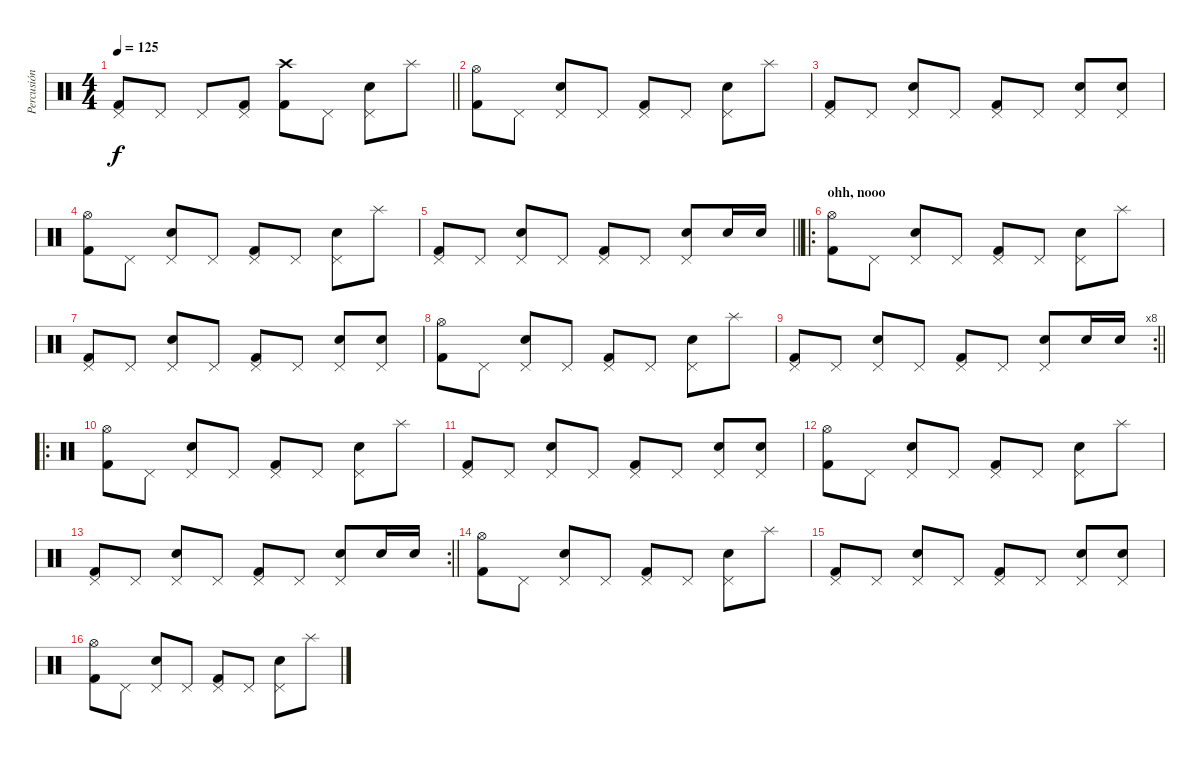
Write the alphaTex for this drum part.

\track ("Percusión" "Percusión") {instrument percussion}
\staff {score}
\articulation defaults
\ts (4 4)
\tempo 125
\clef neutral
\barLineRight lightlight
\ks c
("Pedal Hi-Hat (hit)" "Kick (hit) 2").8{dy f} "Pedal Hi-Hat (hit)".8 "Pedal Hi-Hat (hit)".8 ("Pedal Hi-Hat (hit)" "Kick (hit) 2").8 ("Crash high (hit)" "Kick (hit) 2").8 "Pedal Hi-Hat (hit)".8 ("Pedal Hi-Hat (hit)" "Snare (hit) 2").8 "Splash (hit)".8 |
("Hi-Hat (open)" "Kick (hit) 2").8 "Pedal Hi-Hat (hit)".8 ("Pedal Hi-Hat (hit)" "Snare (hit) 2").8 "Pedal Hi-Hat (hit)".8 ("Pedal Hi-Hat (hit)" "Kick (hit) 2").8 "Pedal Hi-Hat (hit)".8 ("Pedal Hi-Hat (hit)" "Snare (hit) 2").8 "Splash (hit)".8 |
("Pedal Hi-Hat (hit)" "Kick (hit) 2").8 "Pedal Hi-Hat (hit)".8 ("Pedal Hi-Hat (hit)" "Snare (hit) 2").8 "Pedal Hi-Hat (hit)".8 ("Pedal Hi-Hat (hit)" "Kick (hit) 2").8 "Pedal Hi-Hat (hit)".8 ("Pedal Hi-Hat (hit)" "Snare (hit) 2").8 ("Pedal Hi-Hat (hit)" "Snare (hit) 2").8 |
("Hi-Hat (open)" "Kick (hit) 2").8 "Pedal Hi-Hat (hit)".8 ("Pedal Hi-Hat (hit)" "Snare (hit) 2").8 "Pedal Hi-Hat (hit)".8 ("Pedal Hi-Hat (hit)" "Kick (hit) 2").8 "Pedal Hi-Hat (hit)".8 ("Pedal Hi-Hat (hit)" "Snare (hit) 2").8 "Splash (hit)".8 |
\barLineRight lightlight
("Pedal Hi-Hat (hit)" "Kick (hit) 2").8 "Pedal Hi-Hat (hit)".8 ("Pedal Hi-Hat (hit)" "Snare (hit) 2").8 "Pedal Hi-Hat (hit)".8 ("Pedal Hi-Hat (hit)" "Kick (hit) 2").8 "Pedal Hi-Hat (hit)".8 ("Pedal Hi-Hat (hit)" "Snare (hit) 2").8 "Snare (hit) 2".16 "Snare (hit) 2".16 |
\ro
\section ("" "ohh, nooo")
("Hi-Hat (open)" "Kick (hit) 2").8 "Pedal Hi-Hat (hit)".8 ("Pedal Hi-Hat (hit)" "Snare (hit) 2").8 "Pedal Hi-Hat (hit)".8 ("Pedal Hi-Hat (hit)" "Kick (hit) 2").8 "Pedal Hi-Hat (hit)".8 ("Pedal Hi-Hat (hit)" "Snare (hit) 2").8 "Splash (hit)".8 |
("Pedal Hi-Hat (hit)" "Kick (hit) 2").8 "Pedal Hi-Hat (hit)".8 ("Pedal Hi-Hat (hit)" "Snare (hit) 2").8 "Pedal Hi-Hat (hit)".8 ("Pedal Hi-Hat (hit)" "Kick (hit) 2").8 "Pedal Hi-Hat (hit)".8 ("Pedal Hi-Hat (hit)" "Snare (hit) 2").8 ("Pedal Hi-Hat (hit)" "Snare (hit) 2").8 |
("Hi-Hat (open)" "Kick (hit) 2").8 "Pedal Hi-Hat (hit)".8 ("Pedal Hi-Hat (hit)" "Snare (hit) 2").8 "Pedal Hi-Hat (hit)".8 ("Pedal Hi-Hat (hit)" "Kick (hit) 2").8 "Pedal Hi-Hat (hit)".8 ("Pedal Hi-Hat (hit)" "Snare (hit) 2").8 "Splash (hit)".8 |
\rc 8
\barLineRight lightlight
("Pedal Hi-Hat (hit)" "Kick (hit) 2").8 "Pedal Hi-Hat (hit)".8 ("Pedal Hi-Hat (hit)" "Snare (hit) 2").8 "Pedal Hi-Hat (hit)".8 ("Pedal Hi-Hat (hit)" "Kick (hit) 2").8 "Pedal Hi-Hat (hit)".8 ("Pedal Hi-Hat (hit)" "Snare (hit) 2").8 "Snare (hit) 2".16 "Snare (hit) 2".16 |
\ro
("Hi-Hat (open)" "Kick (hit) 2").8 "Pedal Hi-Hat (hit)".8 ("Pedal Hi-Hat (hit)" "Snare (hit) 2").8 "Pedal Hi-Hat (hit)".8 ("Pedal Hi-Hat (hit)" "Kick (hit) 2").8 "Pedal Hi-Hat (hit)".8 ("Pedal Hi-Hat (hit)" "Snare (hit) 2").8 "Splash (hit)".8 |
("Pedal Hi-Hat (hit)" "Kick (hit) 2").8 "Pedal Hi-Hat (hit)".8 ("Pedal Hi-Hat (hit)" "Snare (hit) 2").8 "Pedal Hi-Hat (hit)".8 ("Pedal Hi-Hat (hit)" "Kick (hit) 2").8 "Pedal Hi-Hat (hit)".8 ("Pedal Hi-Hat (hit)" "Snare (hit) 2").8 ("Pedal Hi-Hat (hit)" "Snare (hit) 2").8 |
("Hi-Hat (open)" "Kick (hit) 2").8 "Pedal Hi-Hat (hit)".8 ("Pedal Hi-Hat (hit)" "Snare (hit) 2").8 "Pedal Hi-Hat (hit)".8 ("Pedal Hi-Hat (hit)" "Kick (hit) 2").8 "Pedal Hi-Hat (hit)".8 ("Pedal Hi-Hat (hit)" "Snare (hit) 2").8 "Splash (hit)".8 |
\rc 2
\barLineRight lightlight
("Pedal Hi-Hat (hit)" "Kick (hit) 2").8 "Pedal Hi-Hat (hit)".8 ("Pedal Hi-Hat (hit)" "Snare (hit) 2").8 "Pedal Hi-Hat (hit)".8 ("Pedal Hi-Hat (hit)" "Kick (hit) 2").8 "Pedal Hi-Hat (hit)".8 ("Pedal Hi-Hat (hit)" "Snare (hit) 2").8 "Snare (hit) 2".16 "Snare (hit) 2".16 |
("Hi-Hat (open)" "Kick (hit) 2").8 "Pedal Hi-Hat (hit)".8 ("Pedal Hi-Hat (hit)" "Snare (hit) 2").8 "Pedal Hi-Hat (hit)".8 ("Pedal Hi-Hat (hit)" "Kick (hit) 2").8 "Pedal Hi-Hat (hit)".8 ("Pedal Hi-Hat (hit)" "Snare (hit) 2").8 "Splash (hit)".8 |
("Pedal Hi-Hat (hit)" "Kick (hit) 2").8 "Pedal Hi-Hat (hit)".8 ("Pedal Hi-Hat (hit)" "Snare (hit) 2").8 "Pedal Hi-Hat (hit)".8 ("Pedal Hi-Hat (hit)" "Kick (hit) 2").8 "Pedal Hi-Hat (hit)".8 ("Pedal Hi-Hat (hit)" "Snare (hit) 2").8 ("Pedal Hi-Hat (hit)" "Snare (hit) 2").8 |
("Hi-Hat (open)" "Kick (hit) 2").8 "Pedal Hi-Hat (hit)".8 ("Pedal Hi-Hat (hit)" "Snare (hit) 2").8 "Pedal Hi-Hat (hit)".8 ("Pedal Hi-Hat (hit)" "Kick (hit) 2").8 "Pedal Hi-Hat (hit)".8 ("Pedal Hi-Hat (hit)" "Snare (hit) 2").8 "Splash (hit)".8
